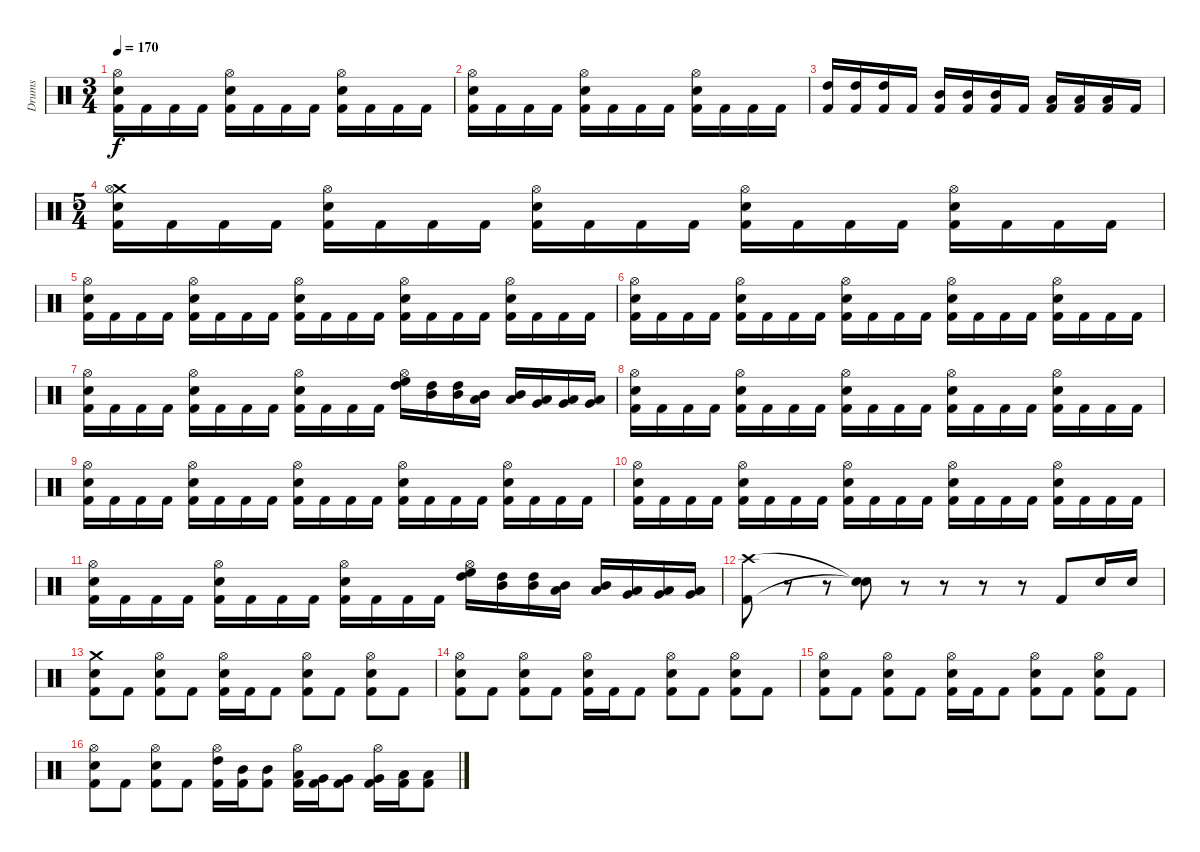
\track ("Drums" "Drums") {instrument percussion}
\staff {score}
\articulation defaults
\ts (3 4)
\tempo 170
\clef neutral
\ks c
("Hi-Hat (open)" "Electric Snare (hit)" "Kick (hit) 2").16{dy f} "Kick (hit) 2".16 "Kick (hit) 2".16 "Kick (hit) 2".16 ("Hi-Hat (open)" "Electric Snare (hit)" "Kick (hit) 2").16 "Kick (hit) 2".16 "Kick (hit) 2".16 "Kick (hit) 2".16 ("Hi-Hat (open)" "Electric Snare (hit)" "Kick (hit) 2").16 "Kick (hit) 2".16 "Kick (hit) 2".16 "Kick (hit) 2".16 |
("Hi-Hat (open)" "Electric Snare (hit)" "Kick (hit) 2").16 "Kick (hit) 2".16 "Kick (hit) 2".16 "Kick (hit) 2".16 ("Hi-Hat (open)" "Electric Snare (hit)" "Kick (hit) 2").16 "Kick (hit) 2".16 "Kick (hit) 2".16 "Kick (hit) 2".16 ("Hi-Hat (open)" "Electric Snare (hit)" "Kick (hit) 2").16 "Kick (hit) 2".16 "Kick (hit) 2".16 "Kick (hit) 2".16 |
("High Tom (hit)" "Kick (hit) 2").16 ("High Tom (hit)" "Kick (hit) 2").16 ("High Tom (hit)" "Kick (hit) 2").16 "Kick (hit) 2".16 ("Mid Tom (hit)" "Kick (hit) 2").16 ("Mid Tom (hit)" "Kick (hit) 2").16 ("Mid Tom (hit)" "Kick (hit) 2").16 "Kick (hit) 2".16 ("Low Tom (hit)" "Kick (hit) 2").16 ("Low Tom (hit)" "Kick (hit) 2").16 ("Low Tom (hit)" "Kick (hit) 2").16 "Kick (hit) 2".16 |
\ts (5 4)
("Crash medium (hit)" "Hi-Hat (open)" "Electric Snare (hit)" "Kick (hit) 2").16 "Kick (hit) 2".16 "Kick (hit) 2".16 "Kick (hit) 2".16 ("Hi-Hat (open)" "Electric Snare (hit)" "Kick (hit) 2").16 "Kick (hit) 2".16 "Kick (hit) 2".16 "Kick (hit) 2".16 ("Hi-Hat (open)" "Electric Snare (hit)" "Kick (hit) 2").16 "Kick (hit) 2".16 "Kick (hit) 2".16 "Kick (hit) 2".16 ("Hi-Hat (open)" "Electric Snare (hit)" "Kick (hit) 2").16 "Kick (hit) 2".16 "Kick (hit) 2".16 "Kick (hit) 2".16 ("Hi-Hat (open)" "Electric Snare (hit)" "Kick (hit) 2").16 "Kick (hit) 2".16 "Kick (hit) 2".16 "Kick (hit) 2".16 |
("Hi-Hat (open)" "Electric Snare (hit)" "Kick (hit) 2").16 "Kick (hit) 2".16 "Kick (hit) 2".16 "Kick (hit) 2".16 ("Hi-Hat (open)" "Electric Snare (hit)" "Kick (hit) 2").16 "Kick (hit) 2".16 "Kick (hit) 2".16 "Kick (hit) 2".16 ("Hi-Hat (open)" "Electric Snare (hit)" "Kick (hit) 2").16 "Kick (hit) 2".16 "Kick (hit) 2".16 "Kick (hit) 2".16 ("Hi-Hat (open)" "Electric Snare (hit)" "Kick (hit) 2").16 "Kick (hit) 2".16 "Kick (hit) 2".16 "Kick (hit) 2".16 ("Hi-Hat (open)" "Electric Snare (hit)" "Kick (hit) 2").16 "Kick (hit) 2".16 "Kick (hit) 2".16 "Kick (hit) 2".16 |
("Hi-Hat (open)" "Electric Snare (hit)" "Kick (hit) 2").16 "Kick (hit) 2".16 "Kick (hit) 2".16 "Kick (hit) 2".16 ("Hi-Hat (open)" "Electric Snare (hit)" "Kick (hit) 2").16 "Kick (hit) 2".16 "Kick (hit) 2".16 "Kick (hit) 2".16 ("Hi-Hat (open)" "Electric Snare (hit)" "Kick (hit) 2").16 "Kick (hit) 2".16 "Kick (hit) 2".16 "Kick (hit) 2".16 ("Hi-Hat (open)" "Electric Snare (hit)" "Kick (hit) 2").16 "Kick (hit) 2".16 "Kick (hit) 2".16 "Kick (hit) 2".16 ("Hi-Hat (open)" "Electric Snare (hit)" "Kick (hit) 2").16 "Kick (hit) 2".16 "Kick (hit) 2".16 "Kick (hit) 2".16 |
("Hi-Hat (open)" "Electric Snare (hit)" "Kick (hit) 2").16 "Kick (hit) 2".16 "Kick (hit) 2".16 "Kick (hit) 2".16 ("Hi-Hat (open)" "Electric Snare (hit)" "Kick (hit) 2").16 "Kick (hit) 2".16 "Kick (hit) 2".16 "Kick (hit) 2".16 ("Hi-Hat (open)" "Electric Snare (hit)" "Kick (hit) 2").16 "Kick (hit) 2".16 "Kick (hit) 2".16 "Kick (hit) 2".16 ("Hi-Hat (open)" "High Floor Tom (hit)" "High Tom (hit)").16 ("High Tom (hit)" "Mid Tom (hit)").16 ("High Tom (hit)" "Mid Tom (hit)").16 ("Mid Tom (hit)" "Low Tom (hit)").16 ("Mid Tom (hit)" "Low Tom (hit)").16 ("Low Tom (hit)" "Very Low Tom (hit)").16 ("Low Tom (hit)" "Very Low Tom (hit)").16 ("Very Low Tom (hit)" "Low Floor Tom (hit)").16 |
("Hi-Hat (open)" "Electric Snare (hit)" "Kick (hit) 2").16 "Kick (hit) 2".16 "Kick (hit) 2".16 "Kick (hit) 2".16 ("Hi-Hat (open)" "Electric Snare (hit)" "Kick (hit) 2").16 "Kick (hit) 2".16 "Kick (hit) 2".16 "Kick (hit) 2".16 ("Hi-Hat (open)" "Electric Snare (hit)" "Kick (hit) 2").16 "Kick (hit) 2".16 "Kick (hit) 2".16 "Kick (hit) 2".16 ("Hi-Hat (open)" "Electric Snare (hit)" "Kick (hit) 2").16 "Kick (hit) 2".16 "Kick (hit) 2".16 "Kick (hit) 2".16 ("Hi-Hat (open)" "Electric Snare (hit)" "Kick (hit) 2").16 "Kick (hit) 2".16 "Kick (hit) 2".16 "Kick (hit) 2".16 |
("Hi-Hat (open)" "Electric Snare (hit)" "Kick (hit) 2").16 "Kick (hit) 2".16 "Kick (hit) 2".16 "Kick (hit) 2".16 ("Hi-Hat (open)" "Electric Snare (hit)" "Kick (hit) 2").16 "Kick (hit) 2".16 "Kick (hit) 2".16 "Kick (hit) 2".16 ("Hi-Hat (open)" "Electric Snare (hit)" "Kick (hit) 2").16 "Kick (hit) 2".16 "Kick (hit) 2".16 "Kick (hit) 2".16 ("Hi-Hat (open)" "Electric Snare (hit)" "Kick (hit) 2").16 "Kick (hit) 2".16 "Kick (hit) 2".16 "Kick (hit) 2".16 ("Hi-Hat (open)" "Electric Snare (hit)" "Kick (hit) 2").16 "Kick (hit) 2".16 "Kick (hit) 2".16 "Kick (hit) 2".16 |
("Hi-Hat (open)" "Electric Snare (hit)" "Kick (hit) 2").16 "Kick (hit) 2".16 "Kick (hit) 2".16 "Kick (hit) 2".16 ("Hi-Hat (open)" "Electric Snare (hit)" "Kick (hit) 2").16 "Kick (hit) 2".16 "Kick (hit) 2".16 "Kick (hit) 2".16 ("Hi-Hat (open)" "Electric Snare (hit)" "Kick (hit) 2").16 "Kick (hit) 2".16 "Kick (hit) 2".16 "Kick (hit) 2".16 ("Hi-Hat (open)" "Electric Snare (hit)" "Kick (hit) 2").16 "Kick (hit) 2".16 "Kick (hit) 2".16 "Kick (hit) 2".16 ("Hi-Hat (open)" "Electric Snare (hit)" "Kick (hit) 2").16 "Kick (hit) 2".16 "Kick (hit) 2".16 "Kick (hit) 2".16 |
("Hi-Hat (open)" "Electric Snare (hit)" "Kick (hit) 2").16 "Kick (hit) 2".16 "Kick (hit) 2".16 "Kick (hit) 2".16 ("Hi-Hat (open)" "Electric Snare (hit)" "Kick (hit) 2").16 "Kick (hit) 2".16 "Kick (hit) 2".16 "Kick (hit) 2".16 ("Hi-Hat (open)" "Electric Snare (hit)" "Kick (hit) 2").16 "Kick (hit) 2".16 "Kick (hit) 2".16 "Kick (hit) 2".16 ("Hi-Hat (open)" "High Floor Tom (hit)" "High Tom (hit)").16 ("High Tom (hit)" "Mid Tom (hit)").16 ("High Tom (hit)" "Mid Tom (hit)").16 ("Mid Tom (hit)" "Low Tom (hit)").16 ("Mid Tom (hit)" "Low Tom (hit)").16 ("Low Tom (hit)" "Very Low Tom (hit)").16 ("Low Tom (hit)" "Very Low Tom (hit)").16 ("Very Low Tom (hit)" "Low Floor Tom (hit)").16 |
("Crash high (hit)" "Kick (hit) 2").8 r.8 r.8 ("Snare (hit)"{t} "Snare (hit)"{t}).8 r.8 r.8 r.8 r.8 "Kick (hit) 2".8 "Electric Snare (hit)".16 "Electric Snare (hit)".16 |
("Crash medium (hit)" "Electric Snare (hit)" "Kick (hit) 2").8 "Kick (hit) 2".8 ("Hi-Hat (open)" "Electric Snare (hit)" "Kick (hit) 2").8 "Kick (hit) 2".8 ("Hi-Hat (open)" "Electric Snare (hit)" "Kick (hit) 2").16 "Kick (hit) 2".16 "Kick (hit) 2".8 ("Hi-Hat (open)" "Electric Snare (hit)" "Kick (hit) 2").8 "Kick (hit) 2".8 ("Hi-Hat (open)" "Electric Snare (hit)" "Kick (hit) 2").8 "Kick (hit) 2".8 |
("Hi-Hat (open)" "Electric Snare (hit)" "Kick (hit) 2").8 "Kick (hit) 2".8 ("Hi-Hat (open)" "Electric Snare (hit)" "Kick (hit) 2").8 "Kick (hit) 2".8 ("Hi-Hat (open)" "Electric Snare (hit)" "Kick (hit) 2").16 "Kick (hit) 2".16 "Kick (hit) 2".8 ("Hi-Hat (open)" "Electric Snare (hit)" "Kick (hit) 2").8 "Kick (hit) 2".8 ("Hi-Hat (open)" "Electric Snare (hit)" "Kick (hit) 2").8 "Kick (hit) 2".8 |
("Hi-Hat (open)" "Electric Snare (hit)" "Kick (hit) 2").8 "Kick (hit) 2".8 ("Hi-Hat (open)" "Electric Snare (hit)" "Kick (hit) 2").8 "Kick (hit) 2".8 ("Hi-Hat (open)" "Electric Snare (hit)" "Kick (hit) 2").16 "Kick (hit) 2".16 "Kick (hit) 2".8 ("Hi-Hat (open)" "Electric Snare (hit)" "Kick (hit) 2").8 "Kick (hit) 2".8 ("Hi-Hat (open)" "Electric Snare (hit)" "Kick (hit) 2").8 "Kick (hit) 2".8 |
("Hi-Hat (open)" "Electric Snare (hit)" "Kick (hit) 2").8 "Kick (hit) 2".8 ("Hi-Hat (open)" "Electric Snare (hit)" "Kick (hit) 2").8 "Kick (hit) 2".8 ("Hi-Hat (open)" "High Tom (hit)" "Kick (hit) 2").16 ("Mid Tom (hit)" "Kick (hit) 2").16 ("Mid Tom (hit)" "Kick (hit) 2").8 ("Hi-Hat (open)" "Low Tom (hit)" "Kick (hit) 2").16 ("Very Low Tom (hit)" "Kick (hit) 2").16 ("Very Low Tom (hit)" "Kick (hit) 2").8 ("Hi-Hat (open)" "Very Low Tom (hit)" "Kick (hit) 2").16 ("Low Floor Tom (hit)" "Kick (hit) 2").16 ("Low Floor Tom (hit)" "Kick (hit) 2").8
